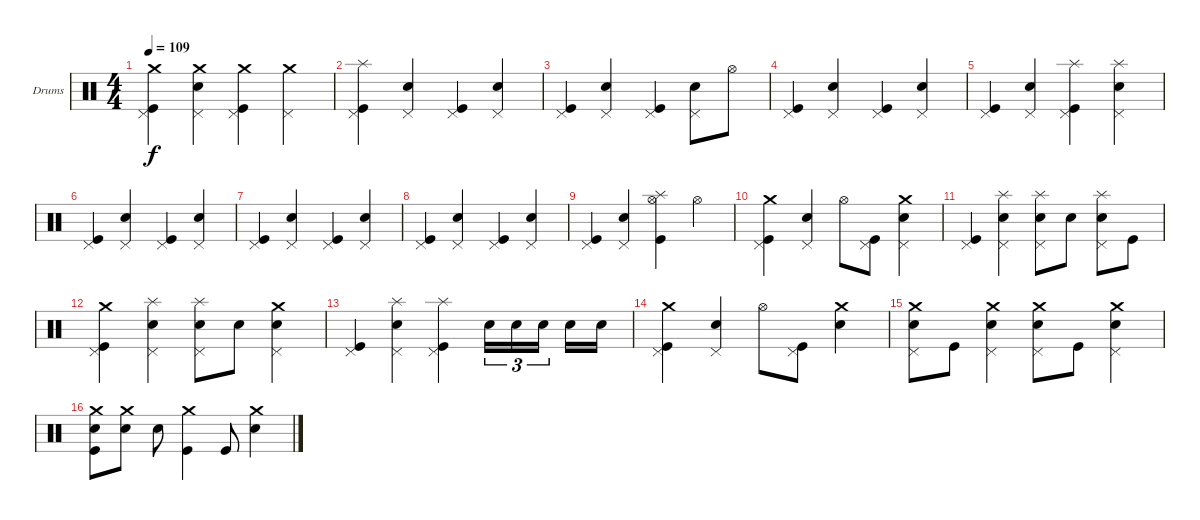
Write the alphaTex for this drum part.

\bracketExtendMode groupsimilarinstruments
\firstSystemTrackNameOrientation horizontal
\otherSystemsTrackNameOrientation horizontal
\track ("Drumkit" "Drums") {instrument percussion}
\staff {score}
\articulation defaults
\ts (4 4)
\tempo 109
\clef neutral
\ks c
("Crash medium (hit)" "Pedal Hi-Hat (hit)" "Kick (hit)").4{dy f} ("Crash medium (hit)" "Pedal Hi-Hat (hit)" "Snare (hit) 2").4 ("Crash medium (hit)" "Pedal Hi-Hat (hit)" "Kick (hit)").4 ("Crash medium (hit)" "Pedal Hi-Hat (hit)").4 |
("Splash (hit)" "Pedal Hi-Hat (hit)" "Kick (hit)").4 ("Pedal Hi-Hat (hit)" "Snare (hit) 2").4 ("Pedal Hi-Hat (hit)" "Kick (hit)").4 ("Pedal Hi-Hat (hit)" "Snare (hit) 2").4 |
("Pedal Hi-Hat (hit)" "Kick (hit)").4 ("Pedal Hi-Hat (hit)" "Snare (hit) 2").4 ("Pedal Hi-Hat (hit)" "Kick (hit)").4 ("Pedal Hi-Hat (hit)" "Snare (hit) 2").8 "Hi-Hat (open)".8 |
("Pedal Hi-Hat (hit)" "Kick (hit)").4 ("Pedal Hi-Hat (hit)" "Snare (hit) 2").4 ("Pedal Hi-Hat (hit)" "Kick (hit)").4 ("Pedal Hi-Hat (hit)" "Snare (hit) 2").4 |
("Pedal Hi-Hat (hit)" "Kick (hit)").4 ("Pedal Hi-Hat (hit)" "Snare (hit) 2").4 ("Splash (hit)" "Pedal Hi-Hat (hit)" "Kick (hit)").4 ("Splash (hit)" "Pedal Hi-Hat (hit)" "Snare (hit) 2").4 |
("Pedal Hi-Hat (hit)" "Kick (hit)").4 ("Pedal Hi-Hat (hit)" "Snare (hit) 2").4 ("Pedal Hi-Hat (hit)" "Kick (hit)").4 ("Pedal Hi-Hat (hit)" "Snare (hit) 2").4 |
("Pedal Hi-Hat (hit)" "Kick (hit)").4 ("Pedal Hi-Hat (hit)" "Snare (hit) 2").4 ("Pedal Hi-Hat (hit)" "Kick (hit)").4 ("Pedal Hi-Hat (hit)" "Snare (hit) 2").4 |
("Pedal Hi-Hat (hit)" "Kick (hit)").4 ("Pedal Hi-Hat (hit)" "Snare (hit) 2").4 ("Pedal Hi-Hat (hit)" "Kick (hit)").4 ("Pedal Hi-Hat (hit)" "Snare (hit) 2").4 |
("Pedal Hi-Hat (hit)" "Kick (hit)").4 ("Pedal Hi-Hat (hit)" "Snare (hit) 2").4 ("Splash (hit)" "Hi-Hat (open)" "Kick (hit)").4 "Hi-Hat (open)".4 |
("Crash medium (hit)" "Pedal Hi-Hat (hit)" "Kick (hit)").4 ("Pedal Hi-Hat (hit)" "Snare (hit) 2").4 "Hi-Hat (open)".8 ("Pedal Hi-Hat (hit)" "Kick (hit)").8 ("Crash medium (hit)" "Pedal Hi-Hat (hit)" "Snare (hit) 2").4 |
("Pedal Hi-Hat (hit)" "Kick (hit)").4 ("Splash (hit)" "Pedal Hi-Hat (hit)" "Snare (hit) 2").4 ("Splash (hit)" "Pedal Hi-Hat (hit)" "Snare (hit) 2").8 "Snare (hit) 2".8 ("Splash (hit)" "Pedal Hi-Hat (hit)" "Snare (hit) 2").8 "Kick (hit)".8 |
("Crash medium (hit)" "Pedal Hi-Hat (hit)" "Kick (hit)").4 ("Splash (hit)" "Pedal Hi-Hat (hit)" "Snare (hit) 2").4 ("Splash (hit)" "Pedal Hi-Hat (hit)" "Snare (hit) 2").8 "Snare (hit) 2".8 ("Crash medium (hit)" "Pedal Hi-Hat (hit)" "Snare (hit) 2").4 |
("Pedal Hi-Hat (hit)" "Kick (hit)").4 ("Splash (hit)" "Pedal Hi-Hat (hit)" "Snare (hit) 2").4 ("Splash (hit)" "Pedal Hi-Hat (hit)" "Kick (hit)").4 "Snare (hit) 2".16{tu (3 2)} "Snare (hit) 2".16{tu (3 2)} "Snare (hit) 2".16{tu (3 2)} "Snare (hit) 2".16 "Snare (hit) 2".16 |
("Crash medium (hit)" "Pedal Hi-Hat (hit)" "Kick (hit)").4 ("Pedal Hi-Hat (hit)" "Snare (hit) 2").4 "Hi-Hat (open)".8 ("Pedal Hi-Hat (hit)" "Kick (hit)").8 ("Crash medium (hit)" "Snare (hit) 2").4 |
("Crash medium (hit)" "Pedal Hi-Hat (hit)" "Snare (hit) 2").8 "Kick (hit)".8 ("Crash medium (hit)" "Pedal Hi-Hat (hit)" "Snare (hit) 2").4 ("Crash medium (hit)" "Pedal Hi-Hat (hit)" "Snare (hit) 2").8 "Kick (hit)".8 ("Crash medium (hit)" "Pedal Hi-Hat (hit)" "Snare (hit) 2").4 |
("Crash medium (hit)" "Snare (hit) 2" "Kick (hit)").8 ("Crash medium (hit)" "Snare (hit) 2").8 "Snare (hit) 2".8 ("Crash medium (hit)" "Kick (hit)").4 "Kick (hit)".8 ("Crash medium (hit)" "Snare (hit) 2").4
